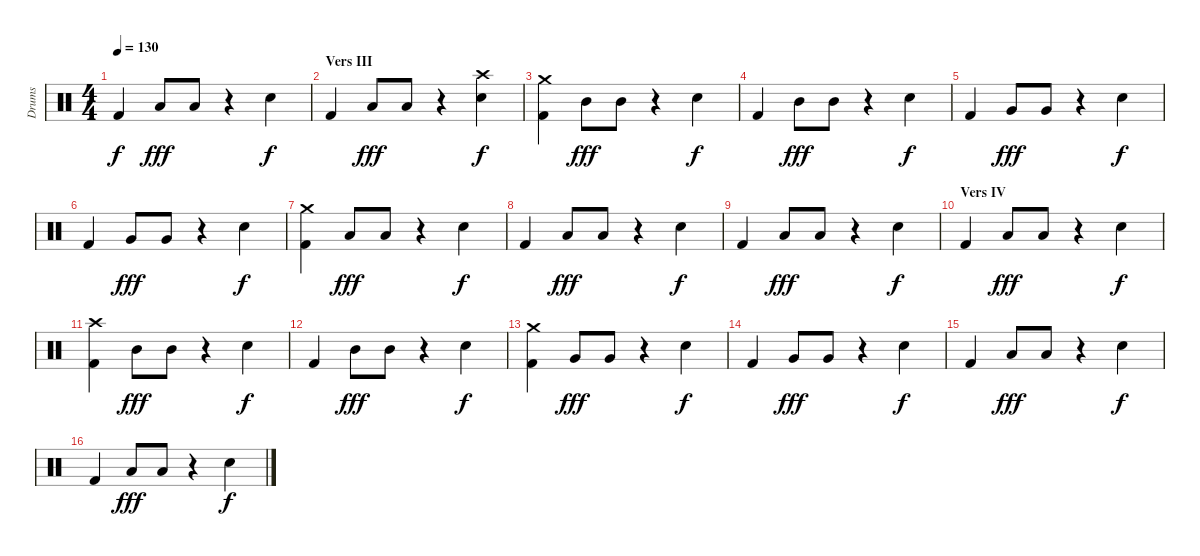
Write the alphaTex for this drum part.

\track ("Drums" "Drums") {instrument percussion}
\staff {score}
\articulation defaults
\ts (4 4)
\tempo 130
\clef neutral
\ks c "Kick (hit) 2".4{dy f} "Low Floor Tom (hit)".8{dy fff} "Low Floor Tom (hit)".8
r.4 "Electric Snare (hit)".4{dy f} |
\section ("" "Vers III")
"Kick (hit) 2".4 "Low Floor Tom (hit)".8{dy fff} "Low Floor Tom (hit)".8 r.4 ("Crash high (hit)" "Electric Snare (hit)").4{dy f} |
("Crash medium (hit)" "Kick (hit) 2").4 "Mid Tom (hit)".8{dy fff} "Mid Tom (hit)".8 r.4 "Electric Snare (hit)".4{dy f} |
"Kick (hit) 2".4 "Mid Tom (hit)".8{dy fff} "Mid Tom (hit)".8 r.4 "Electric Snare (hit)".4{dy f} |
"Kick (hit) 2".4 "Very Low Tom (hit)".8{dy fff} "Very Low Tom (hit)".8 r.4 "Electric Snare (hit)".4{dy f} |
"Kick (hit) 2".4 "Very Low Tom (hit)".8{dy fff} "Very Low Tom (hit)".8 r.4 "Electric Snare (hit)".4{dy f} |
("Crash medium (hit)" "Kick (hit) 2").4 "Low Tom (hit)".8{dy fff} "Low Tom (hit)".8 r.4 "Electric Snare (hit)".4{dy f} |
"Kick (hit) 2".4 "Low Tom (hit)".8{dy fff} "Low Tom (hit)".8 r.4 "Electric Snare (hit)".4{dy f} |
"Kick (hit) 2".4 "Low Floor Tom (hit)".8{dy fff} "Low Floor Tom (hit)".8 r.4 "Electric Snare (hit)".4{dy f} |
\section ("" "Vers IV")
"Kick (hit) 2".4 "Low Floor Tom (hit)".8{dy fff} "Low Floor Tom (hit)".8 r.4 "Electric Snare (hit)".4{dy f} |
("Crash high (hit)" "Kick (hit) 2").4 "Mid Tom (hit)".8{dy fff} "Mid Tom (hit)".8 r.4 "Electric Snare (hit)".4{dy f} |
"Kick (hit) 2".4 "Mid Tom (hit)".8{dy fff} "Mid Tom (hit)".8 r.4 "Electric Snare (hit)".4{dy f} |
("Crash medium (hit)" "Kick (hit) 2").4 "Very Low Tom (hit)".8{dy fff} "Very Low Tom (hit)".8 r.4 "Electric Snare (hit)".4{dy f} |
"Kick (hit) 2".4 "Very Low Tom (hit)".8{dy fff} "Very Low Tom (hit)".8 r.4 "Electric Snare (hit)".4{dy f} |
"Kick (hit) 2".4 "Low Tom (hit)".8{dy fff} "Low Tom (hit)".8 r.4 "Electric Snare (hit)".4{dy f} |
"Kick (hit) 2".4 "Low Tom (hit)".8{dy fff} "Low Tom (hit)".8 r.4 "Electric Snare (hit)".4{dy f}
